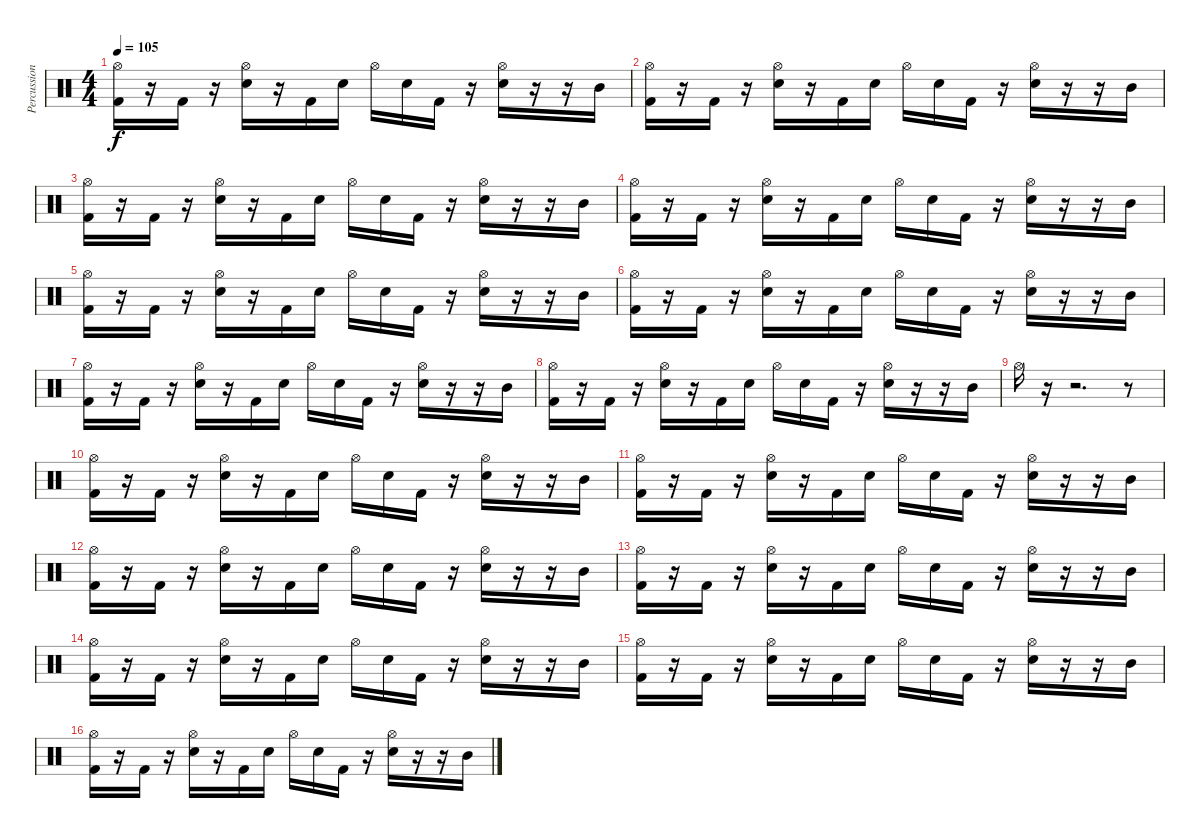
\track ("Percussion" "Percussion") {instrument percussion}
\staff {score}
\articulation defaults
\ts (4 4)
\tempo 105
\clef neutral
\ks c
("Hi-Hat (open)" "Kick (hit) 2").16{dy f} r.16 "Kick (hit) 2".16 r.16 ("Hi-Hat (open)" "Snare (hit) 2").16 r.16 "Kick (hit) 2".16 "Snare (hit) 2".16 "Hi-Hat (open)".16 "Snare (hit) 2".16 "Kick (hit) 2".16 r.16 ("Hi-Hat (open)" "Snare (hit) 2").16 r.16 r.16 "Mid Tom (hit)".16 |
("Hi-Hat (open)" "Kick (hit) 2").16 r.16 "Kick (hit) 2".16 r.16 ("Hi-Hat (open)" "Snare (hit) 2").16 r.16 "Kick (hit) 2".16 "Snare (hit) 2".16 "Hi-Hat (open)".16 "Snare (hit) 2".16 "Kick (hit) 2".16 r.16 ("Hi-Hat (open)" "Snare (hit) 2").16 r.16 r.16 "Mid Tom (hit)".16 |
("Hi-Hat (open)" "Kick (hit) 2").16 r.16 "Kick (hit) 2".16 r.16 ("Hi-Hat (open)" "Snare (hit) 2").16 r.16 "Kick (hit) 2".16 "Snare (hit) 2".16 "Hi-Hat (open)".16 "Snare (hit) 2".16 "Kick (hit) 2".16 r.16 ("Hi-Hat (open)" "Snare (hit) 2").16 r.16 r.16 "Mid Tom (hit)".16 |
("Hi-Hat (open)" "Kick (hit) 2").16 r.16 "Kick (hit) 2".16 r.16 ("Hi-Hat (open)" "Snare (hit) 2").16 r.16 "Kick (hit) 2".16 "Snare (hit) 2".16 "Hi-Hat (open)".16 "Snare (hit) 2".16 "Kick (hit) 2".16 r.16 ("Hi-Hat (open)" "Snare (hit) 2").16 r.16 r.16 "Mid Tom (hit)".16 |
("Hi-Hat (open)" "Kick (hit) 2").16 r.16 "Kick (hit) 2".16 r.16 ("Hi-Hat (open)" "Snare (hit) 2").16 r.16 "Kick (hit) 2".16 "Snare (hit) 2".16 "Hi-Hat (open)".16 "Snare (hit) 2".16 "Kick (hit) 2".16 r.16 ("Hi-Hat (open)" "Snare (hit) 2").16 r.16 r.16 "Mid Tom (hit)".16 |
("Hi-Hat (open)" "Kick (hit) 2").16 r.16 "Kick (hit) 2".16 r.16 ("Hi-Hat (open)" "Snare (hit) 2").16 r.16 "Kick (hit) 2".16 "Snare (hit) 2".16 "Hi-Hat (open)".16 "Snare (hit) 2".16 "Kick (hit) 2".16 r.16 ("Hi-Hat (open)" "Snare (hit) 2").16 r.16 r.16 "Mid Tom (hit)".16 |
("Hi-Hat (open)" "Kick (hit) 2").16 r.16 "Kick (hit) 2".16 r.16 ("Hi-Hat (open)" "Snare (hit) 2").16 r.16 "Kick (hit) 2".16 "Snare (hit) 2".16 "Hi-Hat (open)".16 "Snare (hit) 2".16 "Kick (hit) 2".16 r.16 ("Hi-Hat (open)" "Snare (hit) 2").16 r.16 r.16 "Mid Tom (hit)".16 |
("Hi-Hat (open)" "Kick (hit) 2").16 r.16 "Kick (hit) 2".16 r.16 ("Hi-Hat (open)" "Snare (hit) 2").16 r.16 "Kick (hit) 2".16 "Snare (hit) 2".16 "Hi-Hat (open)".16 "Snare (hit) 2".16 "Kick (hit) 2".16 r.16 ("Hi-Hat (open)" "Snare (hit) 2").16 r.16 r.16 "Mid Tom (hit)".16 |
"Hi-Hat (open)".16 r.16 r.2{d} r.8 |
("Hi-Hat (open)" "Kick (hit) 2").16 r.16 "Kick (hit) 2".16 r.16 ("Hi-Hat (open)" "Snare (hit) 2").16 r.16 "Kick (hit) 2".16 "Snare (hit) 2".16 "Hi-Hat (open)".16 "Snare (hit) 2".16 "Kick (hit) 2".16 r.16 ("Hi-Hat (open)" "Snare (hit) 2").16 r.16 r.16 "Mid Tom (hit)".16 |
("Hi-Hat (open)" "Kick (hit) 2").16 r.16 "Kick (hit) 2".16 r.16 ("Hi-Hat (open)" "Snare (hit) 2").16 r.16 "Kick (hit) 2".16 "Snare (hit) 2".16 "Hi-Hat (open)".16 "Snare (hit) 2".16 "Kick (hit) 2".16 r.16 ("Hi-Hat (open)" "Snare (hit) 2").16 r.16 r.16 "Mid Tom (hit)".16 |
("Hi-Hat (open)" "Kick (hit) 2").16 r.16 "Kick (hit) 2".16 r.16 ("Hi-Hat (open)" "Snare (hit) 2").16 r.16 "Kick (hit) 2".16 "Snare (hit) 2".16 "Hi-Hat (open)".16 "Snare (hit) 2".16 "Kick (hit) 2".16 r.16 ("Hi-Hat (open)" "Snare (hit) 2").16 r.16 r.16 "Mid Tom (hit)".16 |
("Hi-Hat (open)" "Kick (hit) 2").16 r.16 "Kick (hit) 2".16 r.16 ("Hi-Hat (open)" "Snare (hit) 2").16 r.16 "Kick (hit) 2".16 "Snare (hit) 2".16 "Hi-Hat (open)".16 "Snare (hit) 2".16 "Kick (hit) 2".16 r.16 ("Hi-Hat (open)" "Snare (hit) 2").16 r.16 r.16 "Mid Tom (hit)".16 |
("Hi-Hat (open)" "Kick (hit) 2").16 r.16 "Kick (hit) 2".16 r.16 ("Hi-Hat (open)" "Snare (hit) 2").16 r.16 "Kick (hit) 2".16 "Snare (hit) 2".16 "Hi-Hat (open)".16 "Snare (hit) 2".16 "Kick (hit) 2".16 r.16 ("Hi-Hat (open)" "Snare (hit) 2").16 r.16 r.16 "Mid Tom (hit)".16 |
("Hi-Hat (open)" "Kick (hit) 2").16 r.16 "Kick (hit) 2".16 r.16 ("Hi-Hat (open)" "Snare (hit) 2").16 r.16 "Kick (hit) 2".16 "Snare (hit) 2".16 "Hi-Hat (open)".16 "Snare (hit) 2".16 "Kick (hit) 2".16 r.16 ("Hi-Hat (open)" "Snare (hit) 2").16 r.16 r.16 "Mid Tom (hit)".16 |
("Hi-Hat (open)" "Kick (hit) 2").16 r.16 "Kick (hit) 2".16 r.16 ("Hi-Hat (open)" "Snare (hit) 2").16 r.16 "Kick (hit) 2".16 "Snare (hit) 2".16 "Hi-Hat (open)".16 "Snare (hit) 2".16 "Kick (hit) 2".16 r.16 ("Hi-Hat (open)" "Snare (hit) 2").16 r.16 r.16 "Mid Tom (hit)".16
